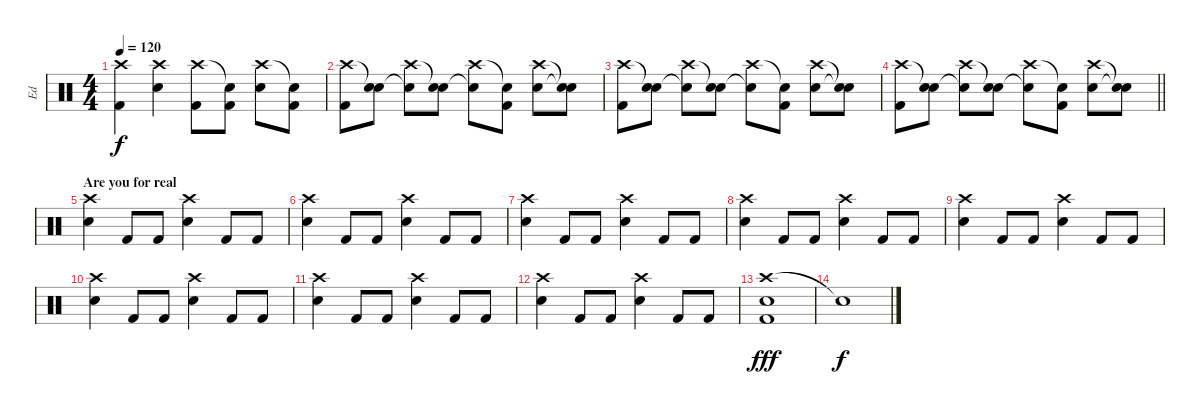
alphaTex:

\track ("Ed" "Ed") {instrument percussion}
\staff {score}
\articulation defaults
\ts (4 4)
\tempo 120
\clef neutral
\ks c
("Crash high (hit)" "Kick (hit) 2").4{dy f} ("Crash high (hit)" "Snare (hit) 2").4 ("Crash high (hit)" "Kick (hit) 2").8 ("Snare (hit)"{t} "Kick (hit) 2").8 ("Crash high (hit)" "Snare (hit) 2").8 ("Snare (hit)"{t} "Kick (hit) 2").8 |
("Crash high (hit)" "Kick (hit) 2").8 ("Snare (hit)"{t} "Snare (hit) 2").8 ("Crash high (hit)" "Snare (hit)"{t}).8 ("Snare (hit)"{t} "Snare (hit) 2").8 ("Crash high (hit)" "Snare (hit)"{t}).8 ("Snare (hit)"{t} "Kick (hit) 2").8 ("Crash high (hit)" "Snare (hit) 2").8 ("Snare (hit)"{t} "Snare (hit)"{t}).8 |
("Crash high (hit)" "Kick (hit) 2").8 ("Snare (hit)"{t} "Snare (hit) 2").8 ("Crash high (hit)" "Snare (hit)"{t}).8 ("Snare (hit)"{t} "Snare (hit) 2").8 ("Crash high (hit)" "Snare (hit)"{t}).8 ("Snare (hit)"{t} "Kick (hit) 2").8 ("Crash high (hit)" "Snare (hit) 2").8 ("Snare (hit)"{t} "Snare (hit)"{t}).8 |
\barLineRight lightlight
("Crash high (hit)" "Kick (hit) 2").8 ("Snare (hit)"{t} "Snare (hit) 2").8 ("Crash high (hit)" "Snare (hit)"{t}).8 ("Snare (hit)"{t} "Snare (hit) 2").8 ("Crash high (hit)" "Snare (hit)"{t}).8 ("Snare (hit)"{t} "Kick (hit) 2").8 ("Crash high (hit)" "Snare (hit) 2").8 ("Snare (hit)"{t} "Snare (hit)"{t}).8 |
\section ("" "Are you for real")
("Crash high (hit)" "Snare (hit) 2").4 "Kick (hit) 2".8 "Kick (hit) 2".8 ("Crash high (hit)" "Snare (hit) 2").4 "Kick (hit) 2".8 "Kick (hit) 2".8 |
("Crash high (hit)" "Snare (hit) 2").4 "Kick (hit) 2".8 "Kick (hit) 2".8 ("Crash high (hit)" "Snare (hit) 2").4 "Kick (hit) 2".8 "Kick (hit) 2".8 |
("Crash high (hit)" "Snare (hit) 2").4 "Kick (hit) 2".8 "Kick (hit) 2".8 ("Crash high (hit)" "Snare (hit) 2").4 "Kick (hit) 2".8 "Kick (hit) 2".8 |
("Crash high (hit)" "Snare (hit) 2").4 "Kick (hit) 2".8 "Kick (hit) 2".8 ("Crash high (hit)" "Snare (hit) 2").4 "Kick (hit) 2".8 "Kick (hit) 2".8 |
("Crash high (hit)" "Snare (hit) 2").4 "Kick (hit) 2".8 "Kick (hit) 2".8 ("Crash high (hit)" "Snare (hit) 2").4 "Kick (hit) 2".8 "Kick (hit) 2".8 |
("Crash high (hit)" "Snare (hit) 2").4 "Kick (hit) 2".8 "Kick (hit) 2".8 ("Crash high (hit)" "Snare (hit) 2").4 "Kick (hit) 2".8 "Kick (hit) 2".8 |
("Crash high (hit)" "Snare (hit) 2").4 "Kick (hit) 2".8 "Kick (hit) 2".8 ("Crash high (hit)" "Snare (hit) 2").4 "Kick (hit) 2".8 "Kick (hit) 2".8 |
("Crash high (hit)" "Snare (hit) 2").4 "Kick (hit) 2".8 "Kick (hit) 2".8 ("Crash high (hit)" "Snare (hit) 2").4 "Kick (hit) 2".8 "Kick (hit) 2".8 |
("Crash high (hit)" "Snare (hit) 2" "Kick (hit) 2").1{dy fff} |
"Snare (hit)"{t}.1{dy f}
